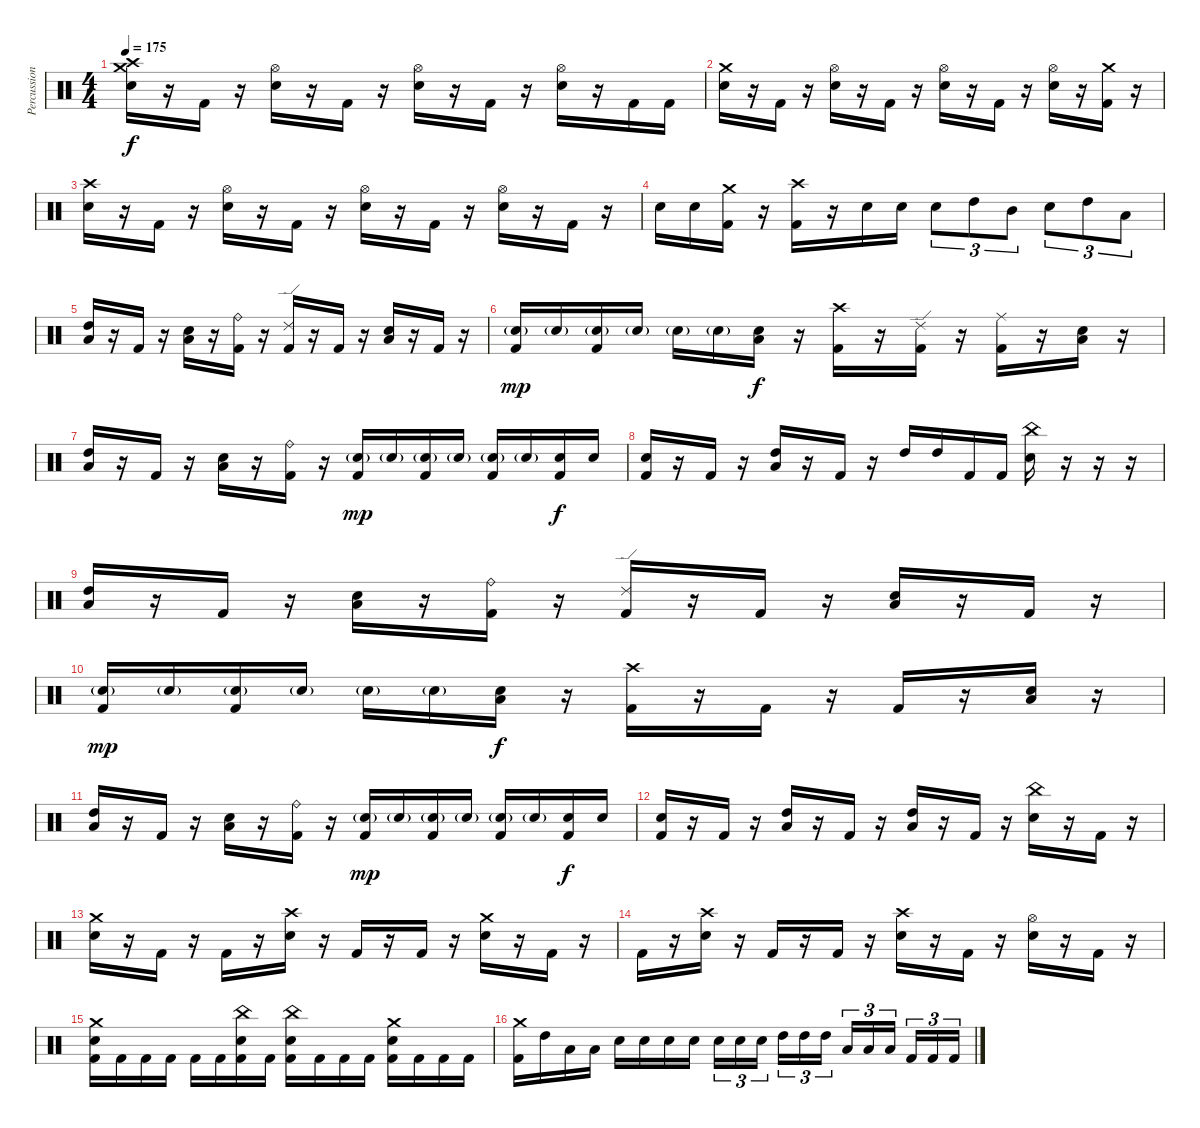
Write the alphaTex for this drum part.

\track ("Percussion" "Percussion") {instrument percussion}
\staff {score}
\articulation defaults
\ts (4 4)
\tempo 175
\clef neutral
\ks c
("Crash medium (hit)" "Crash high (hit)" "Electric Snare (hit)").16{dy f} r.16 "Kick (hit) 2".16 r.16 ("Hi-Hat (open)" "Electric Snare (hit)").16 r.16 "Kick (hit) 2".16 r.16 ("Hi-Hat (open)" "Electric Snare (hit)").16 r.16 "Kick (hit) 2".16 r.16 ("Hi-Hat (open)" "Electric Snare (hit)").16 r.16 "Kick (hit) 2".16 "Kick (hit) 2".16 |
("Crash medium (hit)" "Electric Snare (hit)").16 r.16 "Kick (hit) 2".16 r.16 ("Hi-Hat (open)" "Electric Snare (hit)").16 r.16 "Kick (hit) 2".16 r.16 ("Hi-Hat (open)" "Electric Snare (hit)").16 r.16 "Kick (hit) 2".16 r.16 ("Hi-Hat (open)" "Electric Snare (hit)").16 r.16 ("Crash medium (hit)" "Kick (hit) 2").16 r.16 |
("Crash high (hit)" "Electric Snare (hit)").16 r.16 "Kick (hit) 2".16 r.16 ("Hi-Hat (open)" "Electric Snare (hit)").16 r.16 "Kick (hit) 2".16 r.16 ("Hi-Hat (open)" "Electric Snare (hit)").16 r.16 "Kick (hit) 2".16 r.16 ("Hi-Hat (open)" "Electric Snare (hit)").16 r.16 "Kick (hit) 2".16 r.16 |
"Electric Snare (hit)".16 "Electric Snare (hit)".16 ("Crash medium (hit)" "Kick (hit) 2").16 r.16 ("Crash high (hit)" "Kick (hit) 2").16 r.16 "Electric Snare (hit)".16 "Electric Snare (hit)".16 "Electric Snare (hit)".8{tu (3 2)} "High Tom (hit)".8{tu (3 2)} "Mid Tom (hit)".8{tu (3 2)} "Electric Snare (hit)".8{tu (3 2)} "High Tom (hit)".8{tu (3 2)} "Low Floor Tom (hit)".8{tu (3 2)} |
("High Tom (hit)" "Low Floor Tom (hit)").16 r.16 "Kick (hit) 2".16 r.16 ("Low Floor Tom (hit)" "Electric Snare (hit)").16 r.16 ("Ride (bell)" "Kick (hit) 2").16 r.16 ("Ride (edge) 2" "Kick (hit) 2").16 r.16 "Kick (hit) 2".16 r.16 ("Low Floor Tom (hit)" "Electric Snare (hit)").16 r.16 "Kick (hit) 2".16 r.16 |
("Electric Snare (hit)"{g} "Kick (hit) 2").16{dy mp} "Electric Snare (hit)"{g}.16 ("Electric Snare (hit)"{g} "Kick (hit) 2").16 "Electric Snare (hit)"{g}.16 "Electric Snare (hit)"{g}.16 "Electric Snare (hit)"{g}.16 ("Low Floor Tom (hit)" "Electric Snare (hit)").16{dy f} r.16 ("Crash high (hit)" "Kick (hit) 2").16 r.16 ("Ride (edge) 2" "Kick (hit) 2").16 r.16 ("Ride (middle)" "Kick (hit) 2").16 r.16 ("Low Floor Tom (hit)" "Electric Snare (hit)").16 r.16 |
("Low Floor Tom (hit)" "High Tom (hit)").16 r.16 "Kick (hit) 2".16 r.16 ("Electric Snare (hit)" "Low Floor Tom (hit)").16 r.16 ("Ride (bell)" "Kick (hit) 2").16 r.16 ("Electric Snare (hit)"{g} "Kick (hit) 2").16{dy mp} "Electric Snare (hit)"{g}.16 ("Electric Snare (hit)"{g} "Kick (hit) 2").16 "Electric Snare (hit)"{g}.16 ("Electric Snare (hit)"{g} "Kick (hit) 2").16 "Electric Snare (hit)"{g}.16 ("Electric Snare (hit)" "Kick (hit) 2").16{dy f} "Electric Snare (hit)".16 |
("Electric Snare (hit)" "Kick (hit) 2").16 r.16 "Kick (hit) 2".16 r.16 ("Low Floor Tom (hit)" "High Tom (hit)").16 r.16 "Kick (hit) 2".16 r.16 "High Tom (hit)".16 "High Tom (hit)".16 "Kick (hit) 2".16 "Kick (hit) 2".16 ("China (hit)" "Electric Snare (hit)").16 r.16 r.16 r.16 |
("High Tom (hit)" "Low Floor Tom (hit)").16 r.16 "Kick (hit) 2".16 r.16 ("Low Floor Tom (hit)" "Electric Snare (hit)").16 r.16 ("Ride (bell)" "Kick (hit) 2").16 r.16 ("Ride (edge) 2" "Kick (hit) 2").16 r.16 "Kick (hit) 2".16 r.16 ("Low Floor Tom (hit)" "Electric Snare (hit)").16 r.16 "Kick (hit) 2".16 r.16 |
("Electric Snare (hit)"{g} "Kick (hit) 2").16{dy mp} "Electric Snare (hit)"{g}.16 ("Electric Snare (hit)"{g} "Kick (hit) 2").16 "Electric Snare (hit)"{g}.16 "Electric Snare (hit)"{g}.16 "Electric Snare (hit)"{g}.16 ("Low Floor Tom (hit)" "Electric Snare (hit)").16{dy f} r.16 ("Crash high (hit)" "Kick (hit) 2").16 r.16 "Kick (hit) 2".16 r.16 "Kick (hit) 2".16 r.16 ("Low Floor Tom (hit)" "Electric Snare (hit)").16 r.16 |
("Low Floor Tom (hit)" "High Tom (hit)").16 r.16 "Kick (hit) 2".16 r.16 ("Electric Snare (hit)" "Low Floor Tom (hit)").16 r.16 ("Ride (bell)" "Kick (hit) 2").16 r.16 ("Electric Snare (hit)"{g} "Kick (hit) 2").16{dy mp} "Electric Snare (hit)"{g}.16 ("Electric Snare (hit)"{g} "Kick (hit) 2").16 "Electric Snare (hit)"{g}.16 ("Electric Snare (hit)"{g} "Kick (hit) 2").16 "Electric Snare (hit)"{g}.16 ("Electric Snare (hit)" "Kick (hit) 2").16{dy f} "Electric Snare (hit)".16 |
("Electric Snare (hit)" "Kick (hit) 2").16 r.16 "Kick (hit) 2".16 r.16 ("Low Floor Tom (hit)" "High Tom (hit)").16 r.16 "Kick (hit) 2".16 r.16 ("Low Floor Tom (hit)" "High Tom (hit)").16 r.16 "Kick (hit) 2".16 r.16 ("China (hit)" "Electric Snare (hit)").16 r.16 "Kick (hit) 2".16 r.16 |
("Crash medium (hit)" "Electric Snare (hit)").16 r.16 "Kick (hit) 2".16 r.16 "Kick (hit) 2".16 r.16 ("Crash high (hit)" "Electric Snare (hit)").16 r.16 "Kick (hit) 2".16 r.16 "Kick (hit) 2".16 r.16 ("Crash medium (hit)" "Electric Snare (hit)").16 r.16 "Kick (hit) 2".16 r.16 |
"Kick (hit) 2".16 r.16 ("Crash high (hit)" "Electric Snare (hit)").16 r.16 "Kick (hit) 2".16 r.16 "Kick (hit) 2".16 r.16 ("Crash high (hit)" "Electric Snare (hit)").16 r.16 "Kick (hit) 2".16 r.16 ("Hi-Hat (open)" "Electric Snare (hit)").16 r.16 "Kick (hit) 2".16 r.16 |
("Crash medium (hit)" "Electric Snare (hit)" "Kick (hit) 2").16 "Kick (hit) 2".16 "Kick (hit) 2".16 "Kick (hit) 2".16 "Kick (hit) 2".16 "Kick (hit) 2".16 ("China (hit)" "Electric Snare (hit)" "Kick (hit) 2").16 "Kick (hit) 2".16 ("China (hit)" "Electric Snare (hit)" "Kick (hit) 2").16 "Kick (hit) 2".16 "Kick (hit) 2".16 "Kick (hit) 2".16 ("Crash medium (hit)" "Electric Snare (hit)" "Kick (hit) 2").16 "Kick (hit) 2".16 "Kick (hit) 2".16 "Kick (hit) 2".16 |
("Crash medium (hit)" "Kick (hit) 2").16 "High Tom (hit)".16 "Low Floor Tom (hit)".16 "Low Floor Tom (hit)".16 "Electric Snare (hit)".16 "Electric Snare (hit)".16 "Electric Snare (hit)".16 "Electric Snare (hit)".16 "Electric Snare (hit)".16{tu (3 2)} "Electric Snare (hit)".16{tu (3 2)} "Electric Snare (hit)".16{tu (3 2) beam splitsecondary} "High Tom (hit)".16{tu (3 2)} "High Tom (hit)".16{tu (3 2)} "High Tom (hit)".16{tu (3 2)} "Low Floor Tom (hit)".16{tu (3 2)} "Low Floor Tom (hit)".16{tu (3 2)} "Low Floor Tom (hit)".16{tu (3 2) beam splitsecondary} "Kick (hit) 2".16{tu (3 2)} "Kick (hit) 2".16{tu (3 2)} "Kick (hit) 2".16{tu (3 2)}
